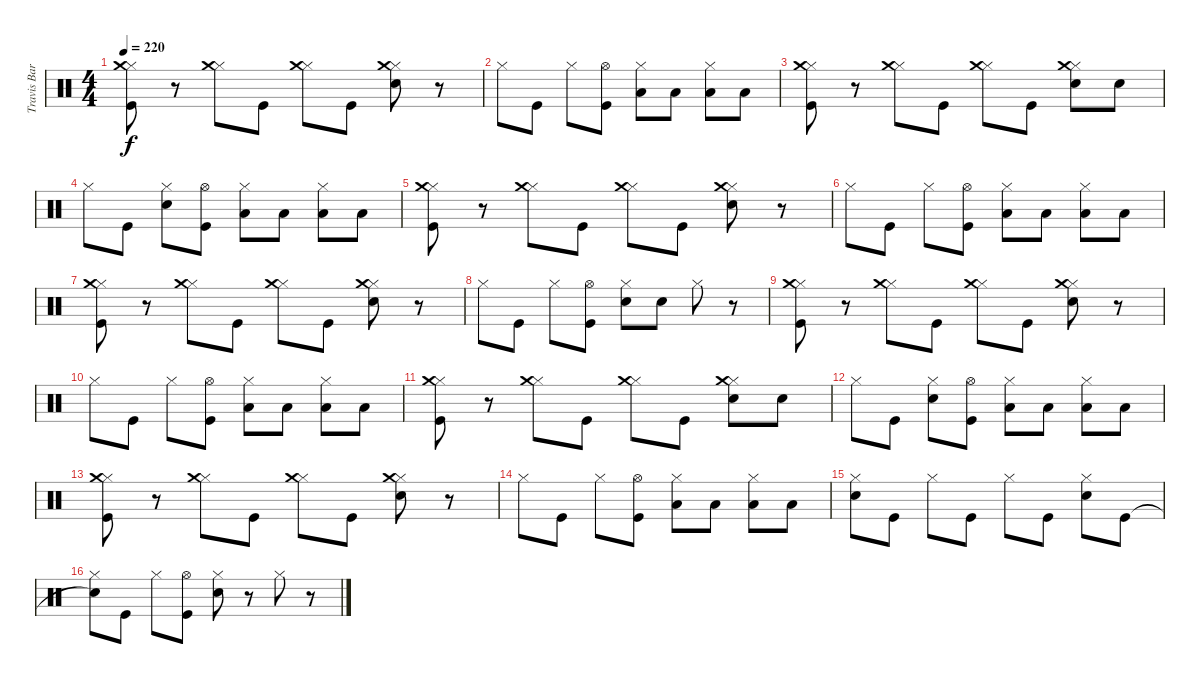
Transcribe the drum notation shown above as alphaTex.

\track ("Travis Barker (Drums)" "Travis Bar") {instrument percussion}
\staff {score}
\articulation defaults
\ts (4 4)
\tempo 220
\clef neutral
\ks c
("Kick (hit)" "Hi-Hat (closed)" "Crash medium (hit)").8{dy f} r.8 ("Hi-Hat (closed)" "Crash medium (hit)").8 "Kick (hit)".8 ("Hi-Hat (closed)" "Crash medium (hit)").8 "Kick (hit)".8 ("Electric Snare (hit)" "Hi-Hat (closed)" "Crash medium (hit)").8 r.8 |
"Hi-Hat (closed)".8 "Kick (hit)".8 "Hi-Hat (closed)".8 ("Kick (hit)" "Hi-Hat (open)").8 ("Low Tom (hit)" "Hi-Hat (closed)").8 "Low Tom (hit)".8 ("Low Floor Tom (hit)" "Hi-Hat (closed)").8 "Low Floor Tom (hit)".8 |
("Kick (hit)" "Hi-Hat (closed)" "Crash medium (hit)").8 r.8 ("Hi-Hat (closed)" "Crash medium (hit)").8 "Kick (hit)".8 ("Hi-Hat (closed)" "Crash medium (hit)").8 "Kick (hit)".8 ("Electric Snare (hit)" "Hi-Hat (closed)" "Crash medium (hit)").8 "Electric Snare (hit)".8 |
"Hi-Hat (closed)".8 "Kick (hit)".8 ("Electric Snare (hit)" "Hi-Hat (closed)").8 ("Kick (hit)" "Hi-Hat (open)").8 ("Low Tom (hit)" "Hi-Hat (closed)").8 "Low Tom (hit)".8 ("Low Floor Tom (hit)" "Hi-Hat (closed)").8 "Low Floor Tom (hit)".8 |
("Kick (hit)" "Hi-Hat (closed)" "Crash medium (hit)").8 r.8 ("Hi-Hat (closed)" "Crash medium (hit)").8 "Kick (hit)".8 ("Hi-Hat (closed)" "Crash medium (hit)").8 "Kick (hit)".8 ("Electric Snare (hit)" "Hi-Hat (closed)" "Crash medium (hit)").8 r.8 |
"Hi-Hat (closed)".8 "Kick (hit)".8 "Hi-Hat (closed)".8 ("Kick (hit)" "Hi-Hat (open)").8 ("Low Tom (hit)" "Hi-Hat (closed)").8 "Low Tom (hit)".8 ("Low Floor Tom (hit)" "Hi-Hat (closed)").8 "Low Floor Tom (hit)".8 |
("Kick (hit)" "Hi-Hat (closed)" "Crash medium (hit)").8 r.8 ("Hi-Hat (closed)" "Crash medium (hit)").8 "Kick (hit)".8 ("Hi-Hat (closed)" "Crash medium (hit)").8 "Kick (hit)".8 ("Electric Snare (hit)" "Hi-Hat (closed)" "Crash medium (hit)").8 r.8 |
"Hi-Hat (closed)".8 "Kick (hit)".8 "Hi-Hat (closed)".8 ("Kick (hit)" "Hi-Hat (open)").8 ("Electric Snare (hit)" "Hi-Hat (closed)").8 "Electric Snare (hit)".8 "Hi-Hat (closed)".8 r.8 |
("Kick (hit)" "Hi-Hat (closed)" "Crash medium (hit)").8 r.8 ("Hi-Hat (closed)" "Crash medium (hit)").8 "Kick (hit)".8 ("Hi-Hat (closed)" "Crash medium (hit)").8 "Kick (hit)".8 ("Electric Snare (hit)" "Hi-Hat (closed)" "Crash medium (hit)").8 r.8 |
"Hi-Hat (closed)".8 "Kick (hit)".8 "Hi-Hat (closed)".8 ("Kick (hit)" "Hi-Hat (open)").8 ("Low Tom (hit)" "Hi-Hat (closed)").8 "Low Tom (hit)".8 ("Low Floor Tom (hit)" "Hi-Hat (closed)").8 "Low Floor Tom (hit)".8 |
("Kick (hit)" "Hi-Hat (closed)" "Crash medium (hit)").8 r.8 ("Hi-Hat (closed)" "Crash medium (hit)").8 "Kick (hit)".8 ("Hi-Hat (closed)" "Crash medium (hit)").8 "Kick (hit)".8 ("Electric Snare (hit)" "Hi-Hat (closed)" "Crash medium (hit)").8 "Electric Snare (hit)".8 |
"Hi-Hat (closed)".8 "Kick (hit)".8 ("Electric Snare (hit)" "Hi-Hat (closed)").8 ("Kick (hit)" "Hi-Hat (open)").8 ("Low Tom (hit)" "Hi-Hat (closed)").8 "Low Tom (hit)".8 ("Low Floor Tom (hit)" "Hi-Hat (closed)").8 "Low Floor Tom (hit)".8 |
("Kick (hit)" "Hi-Hat (closed)" "Crash medium (hit)").8 r.8 ("Hi-Hat (closed)" "Crash medium (hit)").8 "Kick (hit)".8 ("Hi-Hat (closed)" "Crash medium (hit)").8 "Kick (hit)".8 ("Electric Snare (hit)" "Hi-Hat (closed)" "Crash medium (hit)").8 r.8 |
"Hi-Hat (closed)".8 "Kick (hit)".8 "Hi-Hat (closed)".8 ("Kick (hit)" "Hi-Hat (open)").8 ("Low Tom (hit)" "Hi-Hat (closed)").8 "Low Tom (hit)".8 ("Low Floor Tom (hit)" "Hi-Hat (closed)").8 "Low Floor Tom (hit)".8 |
("Electric Snare (hit)" "Hi-Hat (closed)").8 "Kick (hit)".8 "Hi-Hat (closed)".8 "Kick (hit)".8 "Hi-Hat (closed)".8 "Kick (hit)".8 ("Electric Snare (hit)" "Hi-Hat (closed)").8 "Kick (hit)".8 |
("Snare (hit)"{t} "Hi-Hat (closed)").8 "Kick (hit)".8 "Hi-Hat (closed)".8 ("Kick (hit)" "Hi-Hat (open)").8 ("Electric Snare (hit)" "Hi-Hat (closed)").8 r.8 "Hi-Hat (closed)".8 r.8
